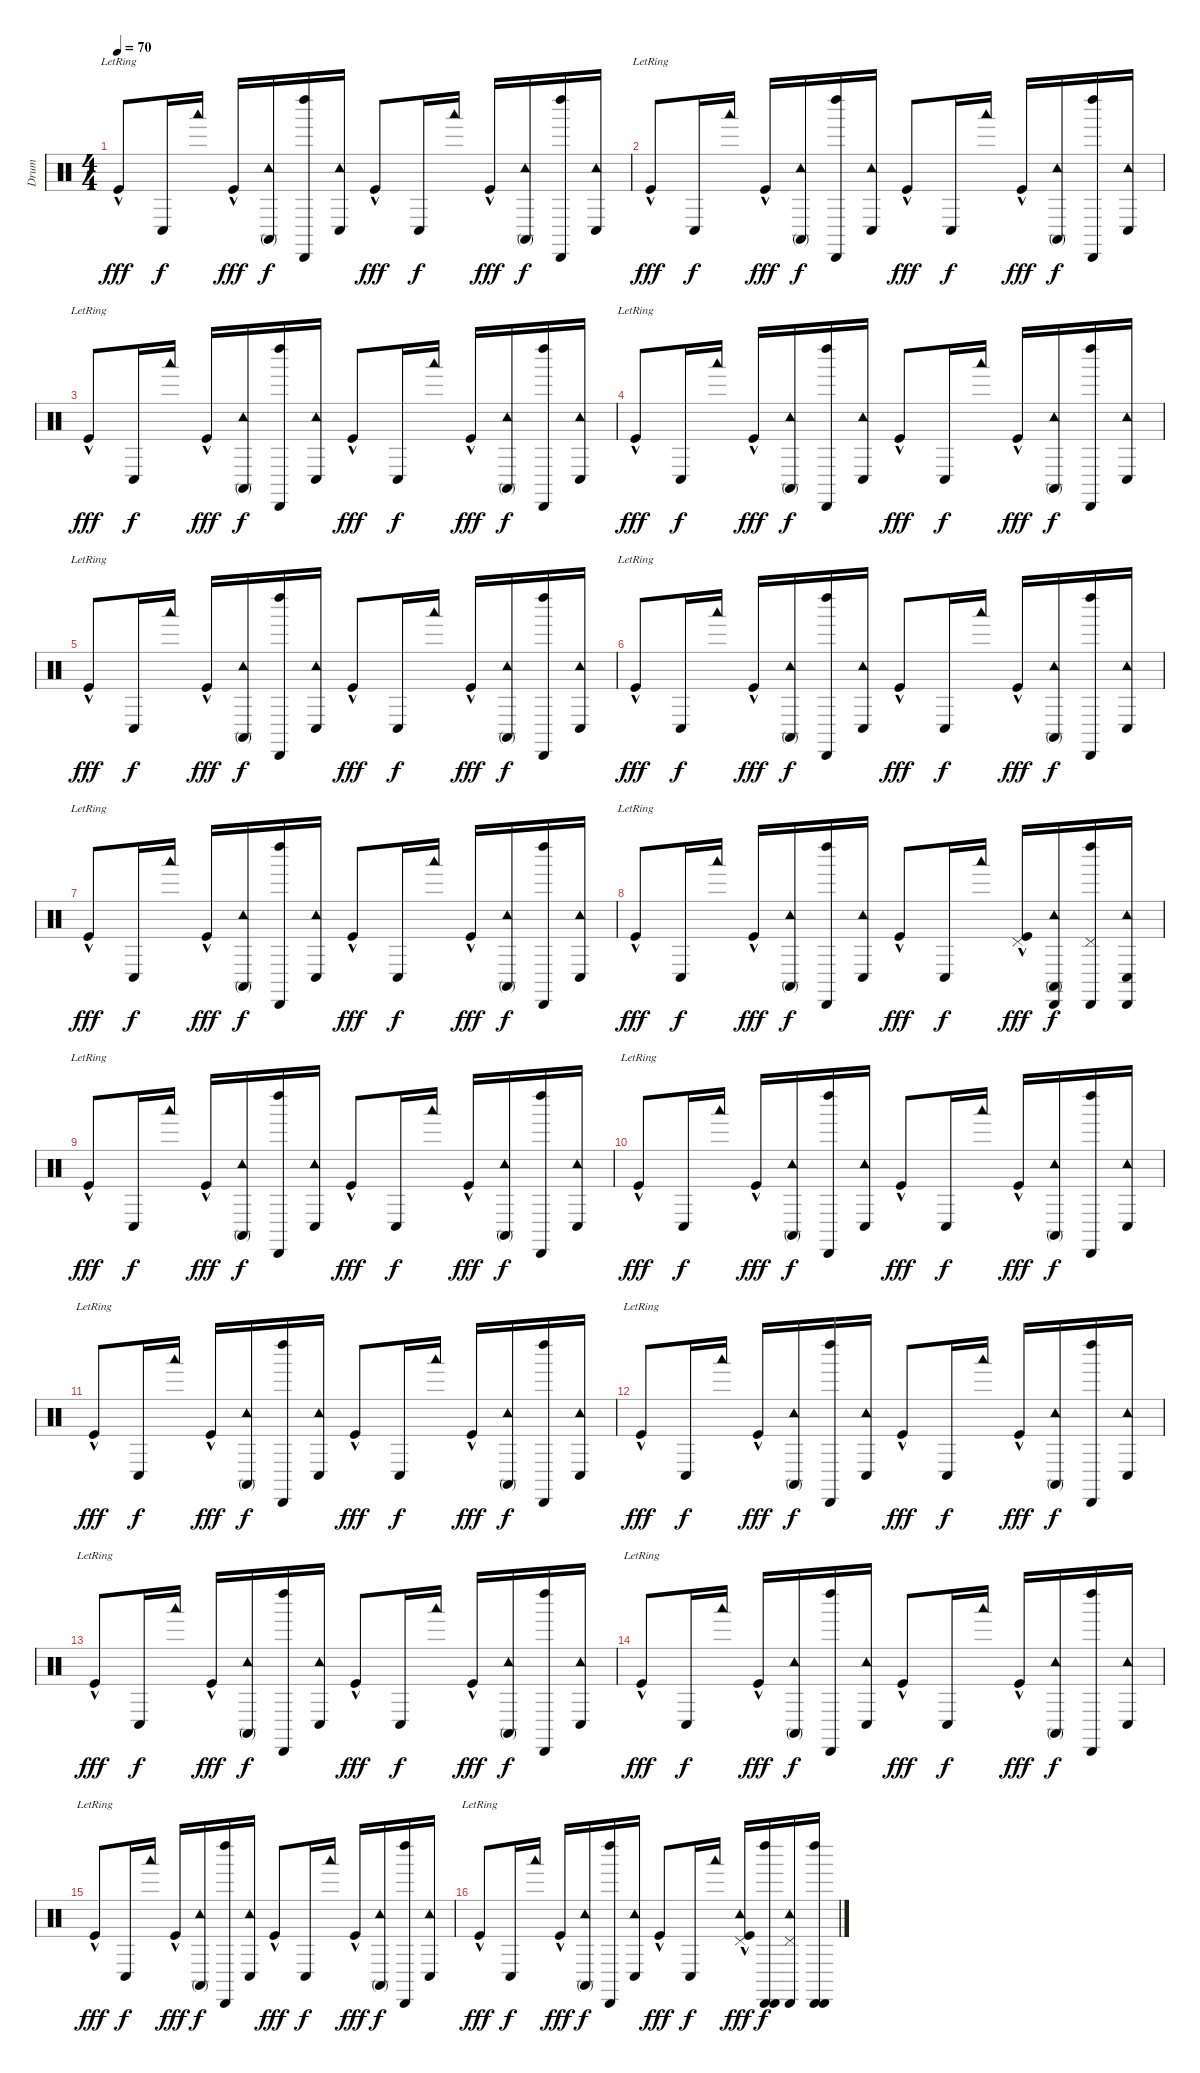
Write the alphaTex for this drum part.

\track ("Drum" "Drum") {instrument percussion}
\staff {score}
\articulation defaults
\ts (4 4)
\tempo 70
\clef neutral
\ks c "Kick (hit)"{hac lr}.8{dy fff} "Conga low (hit)".16{dy f} "Woodblock low (hit)".16 "Kick (hit)"{hac}.16{dy fff}
("Tambourine (hit)" "Conga high (mute)").16{dy f} ("Left Maraca (hit)" "Cabasa (hit)").16 ("Tambourine (hit)" "Conga low (hit)").16 "Kick (hit)"{hac}.8{dy fff} "Conga low (hit)".16{dy f} "Woodblock low (hit)".16 "Kick (hit)"{hac}.16{dy fff} ("Tambourine (hit)" "Conga high (mute)").16{dy f} ("Cabasa (hit)" "Left Maraca (hit)").16 ("Tambourine (hit)" "Conga low (hit)").16 |
"Kick (hit)"{hac lr}.8{dy fff} "Conga low (hit)".16{dy f} "Woodblock low (hit)".16 "Kick (hit)"{hac}.16{dy fff} ("Tambourine (hit)" "Conga high (mute)").16{dy f} ("Left Maraca (hit)" "Cabasa (hit)").16 ("Tambourine (hit)" "Conga low (hit)").16 "Kick (hit)"{hac}.8{dy fff} "Conga low (hit)".16{dy f} "Woodblock low (hit)".16 "Kick (hit)"{hac}.16{dy fff} ("Tambourine (hit)" "Conga high (mute)").16{dy f} ("Cabasa (hit)" "Left Maraca (hit)").16 ("Tambourine (hit)" "Conga low (hit)").16 |
"Kick (hit)"{hac lr}.8{dy fff} "Conga low (hit)".16{dy f} "Woodblock low (hit)".16 "Kick (hit)"{hac}.16{dy fff} ("Tambourine (hit)" "Conga high (mute)").16{dy f} ("Left Maraca (hit)" "Cabasa (hit)").16 ("Tambourine (hit)" "Conga low (hit)").16 "Kick (hit)"{hac}.8{dy fff} "Conga low (hit)".16{dy f} "Woodblock low (hit)".16 "Kick (hit)"{hac}.16{dy fff} ("Tambourine (hit)" "Conga high (mute)").16{dy f} ("Cabasa (hit)" "Left Maraca (hit)").16 ("Tambourine (hit)" "Conga low (hit)").16 |
"Kick (hit)"{hac lr}.8{dy fff} "Conga low (hit)".16{dy f} "Woodblock low (hit)".16 "Kick (hit)"{hac}.16{dy fff} ("Tambourine (hit)" "Conga high (mute)").16{dy f} ("Left Maraca (hit)" "Cabasa (hit)").16 ("Tambourine (hit)" "Conga low (hit)").16 "Kick (hit)"{hac}.8{dy fff} "Conga low (hit)".16{dy f} "Woodblock low (hit)".16 "Kick (hit)"{hac}.16{dy fff} ("Tambourine (hit)" "Conga high (mute)").16{dy f} ("Cabasa (hit)" "Left Maraca (hit)").16 ("Tambourine (hit)" "Conga low (hit)").16 |
"Kick (hit)"{hac lr}.8{dy fff} "Conga low (hit)".16{dy f} "Woodblock low (hit)".16 "Kick (hit)"{hac}.16{dy fff} ("Tambourine (hit)" "Conga high (mute)").16{dy f} ("Left Maraca (hit)" "Cabasa (hit)").16 ("Tambourine (hit)" "Conga low (hit)").16 "Kick (hit)"{hac}.8{dy fff} "Conga low (hit)".16{dy f} "Woodblock low (hit)".16 "Kick (hit)"{hac}.16{dy fff} ("Tambourine (hit)" "Conga high (mute)").16{dy f} ("Cabasa (hit)" "Left Maraca (hit)").16 ("Tambourine (hit)" "Conga low (hit)").16 |
"Kick (hit)"{hac lr}.8{dy fff} "Conga low (hit)".16{dy f} "Woodblock low (hit)".16 "Kick (hit)"{hac}.16{dy fff} ("Tambourine (hit)" "Conga high (mute)").16{dy f} ("Left Maraca (hit)" "Cabasa (hit)").16 ("Tambourine (hit)" "Conga low (hit)").16 "Kick (hit)"{hac}.8{dy fff} "Conga low (hit)".16{dy f} "Woodblock low (hit)".16 "Kick (hit)"{hac}.16{dy fff} ("Tambourine (hit)" "Conga high (mute)").16{dy f} ("Cabasa (hit)" "Left Maraca (hit)").16 ("Tambourine (hit)" "Conga low (hit)").16 |
"Kick (hit)"{hac lr}.8{dy fff} "Conga low (hit)".16{dy f} "Woodblock low (hit)".16 "Kick (hit)"{hac}.16{dy fff} ("Tambourine (hit)" "Conga high (mute)").16{dy f} ("Left Maraca (hit)" "Cabasa (hit)").16 ("Tambourine (hit)" "Conga low (hit)").16 "Kick (hit)"{hac}.8{dy fff} "Conga low (hit)".16{dy f} "Woodblock low (hit)".16 "Kick (hit)"{hac}.16{dy fff} ("Tambourine (hit)" "Conga high (mute)").16{dy f} ("Cabasa (hit)" "Left Maraca (hit)").16 ("Tambourine (hit)" "Conga low (hit)").16 |
"Kick (hit)"{hac lr}.8{dy fff} "Conga low (hit)".16{dy f} "Woodblock low (hit)".16 "Kick (hit)"{hac}.16{dy fff} ("Tambourine (hit)" "Conga high (mute)").16{dy f} ("Left Maraca (hit)" "Cabasa (hit)").16 ("Tambourine (hit)" "Conga low (hit)").16 "Kick (hit)"{hac}.8{dy fff} "Conga low (hit)".16{dy f} "Woodblock low (hit)".16 ("Kick (hit)"{hac} "Pedal Hi-Hat (hit)").16{dy fff} ("Tambourine (hit)" "Conga high (mute)" "Cabasa (hit)").16{dy f} ("Cabasa (hit)" "Left Maraca (hit)" "Pedal Hi-Hat (hit)").16 ("Tambourine (hit)" "Conga low (hit)" "Cabasa (hit)").16 |
"Kick (hit)"{hac lr}.8{dy fff} "Conga low (hit)".16{dy f} "Woodblock low (hit)".16 "Kick (hit)"{hac}.16{dy fff} ("Tambourine (hit)" "Conga high (mute)").16{dy f} ("Left Maraca (hit)" "Cabasa (hit)").16 ("Tambourine (hit)" "Conga low (hit)").16 "Kick (hit)"{hac}.8{dy fff} "Conga low (hit)".16{dy f} "Woodblock low (hit)".16 "Kick (hit)"{hac}.16{dy fff} ("Tambourine (hit)" "Conga high (mute)").16{dy f} ("Cabasa (hit)" "Left Maraca (hit)").16 ("Tambourine (hit)" "Conga low (hit)").16 |
"Kick (hit)"{hac lr}.8{dy fff} "Conga low (hit)".16{dy f} "Woodblock low (hit)".16 "Kick (hit)"{hac}.16{dy fff} ("Tambourine (hit)" "Conga high (mute)").16{dy f} ("Left Maraca (hit)" "Cabasa (hit)").16 ("Tambourine (hit)" "Conga low (hit)").16 "Kick (hit)"{hac}.8{dy fff} "Conga low (hit)".16{dy f} "Woodblock low (hit)".16 "Kick (hit)"{hac}.16{dy fff} ("Tambourine (hit)" "Conga high (mute)").16{dy f} ("Cabasa (hit)" "Left Maraca (hit)").16 ("Tambourine (hit)" "Conga low (hit)").16 |
"Kick (hit)"{hac lr}.8{dy fff} "Conga low (hit)".16{dy f} "Woodblock low (hit)".16 "Kick (hit)"{hac}.16{dy fff} ("Tambourine (hit)" "Conga high (mute)").16{dy f} ("Left Maraca (hit)" "Cabasa (hit)").16 ("Tambourine (hit)" "Conga low (hit)").16 "Kick (hit)"{hac}.8{dy fff} "Conga low (hit)".16{dy f} "Woodblock low (hit)".16 "Kick (hit)"{hac}.16{dy fff} ("Tambourine (hit)" "Conga high (mute)").16{dy f} ("Cabasa (hit)" "Left Maraca (hit)").16 ("Tambourine (hit)" "Conga low (hit)").16 |
"Kick (hit)"{hac lr}.8{dy fff} "Conga low (hit)".16{dy f} "Woodblock low (hit)".16 "Kick (hit)"{hac}.16{dy fff} ("Tambourine (hit)" "Conga high (mute)").16{dy f} ("Left Maraca (hit)" "Cabasa (hit)").16 ("Tambourine (hit)" "Conga low (hit)").16 "Kick (hit)"{hac}.8{dy fff} "Conga low (hit)".16{dy f} "Woodblock low (hit)".16 "Kick (hit)"{hac}.16{dy fff} ("Tambourine (hit)" "Conga high (mute)").16{dy f} ("Cabasa (hit)" "Left Maraca (hit)").16 ("Tambourine (hit)" "Conga low (hit)").16 |
"Kick (hit)"{hac lr}.8{dy fff} "Conga low (hit)".16{dy f} "Woodblock low (hit)".16 "Kick (hit)"{hac}.16{dy fff} ("Tambourine (hit)" "Conga high (mute)").16{dy f} ("Left Maraca (hit)" "Cabasa (hit)").16 ("Tambourine (hit)" "Conga low (hit)").16 "Kick (hit)"{hac}.8{dy fff} "Conga low (hit)".16{dy f} "Woodblock low (hit)".16 "Kick (hit)"{hac}.16{dy fff} ("Tambourine (hit)" "Conga high (mute)").16{dy f} ("Cabasa (hit)" "Left Maraca (hit)").16 ("Tambourine (hit)" "Conga low (hit)").16 |
"Kick (hit)"{hac lr}.8{dy fff} "Conga low (hit)".16{dy f} "Woodblock low (hit)".16 "Kick (hit)"{hac}.16{dy fff} ("Tambourine (hit)" "Conga high (mute)").16{dy f} ("Left Maraca (hit)" "Cabasa (hit)").16 ("Tambourine (hit)" "Conga low (hit)").16 "Kick (hit)"{hac}.8{dy fff} "Conga low (hit)".16{dy f} "Woodblock low (hit)".16 "Kick (hit)"{hac}.16{dy fff} ("Tambourine (hit)" "Conga high (mute)").16{dy f} ("Cabasa (hit)" "Left Maraca (hit)").16 ("Tambourine (hit)" "Conga low (hit)").16 |
"Kick (hit)"{hac lr}.8{dy fff} "Conga low (hit)".16{dy f} "Woodblock low (hit)".16 "Kick (hit)"{hac}.16{dy fff} ("Tambourine (hit)" "Conga high (mute)").16{dy f} ("Left Maraca (hit)" "Cabasa (hit)").16 ("Tambourine (hit)" "Conga low (hit)").16 "Kick (hit)"{hac}.8{dy fff} "Conga low (hit)".16{dy f} "Woodblock low (hit)".16 "Kick (hit)"{hac}.16{dy fff} ("Tambourine (hit)" "Conga high (mute)").16{dy f} ("Cabasa (hit)" "Left Maraca (hit)").16 ("Tambourine (hit)" "Conga low (hit)").16 |
"Kick (hit)"{hac lr}.8{dy fff} "Conga low (hit)".16{dy f} "Woodblock low (hit)".16 "Kick (hit)"{hac}.16{dy fff} ("Tambourine (hit)" "Conga high (mute)").16{dy f} ("Left Maraca (hit)" "Cabasa (hit)").16 ("Tambourine (hit)" "Conga low (hit)").16 "Kick (hit)"{hac}.8{dy fff} "Conga low (hit)".16{dy f} "Woodblock low (hit)".16 ("Tambourine (hit)" "Kick (hit)"{hac} "Pedal Hi-Hat (hit)").16{dy fff} ("Cabasa (hit)" "Cabasa (hit)" "Left Maraca (hit)").16{dy f} ("Cabasa (hit)" "Tambourine (hit)" "Pedal Hi-Hat (hit)").16 ("Cabasa (hit)" "Cabasa (hit)" "Left Maraca (hit)").16
